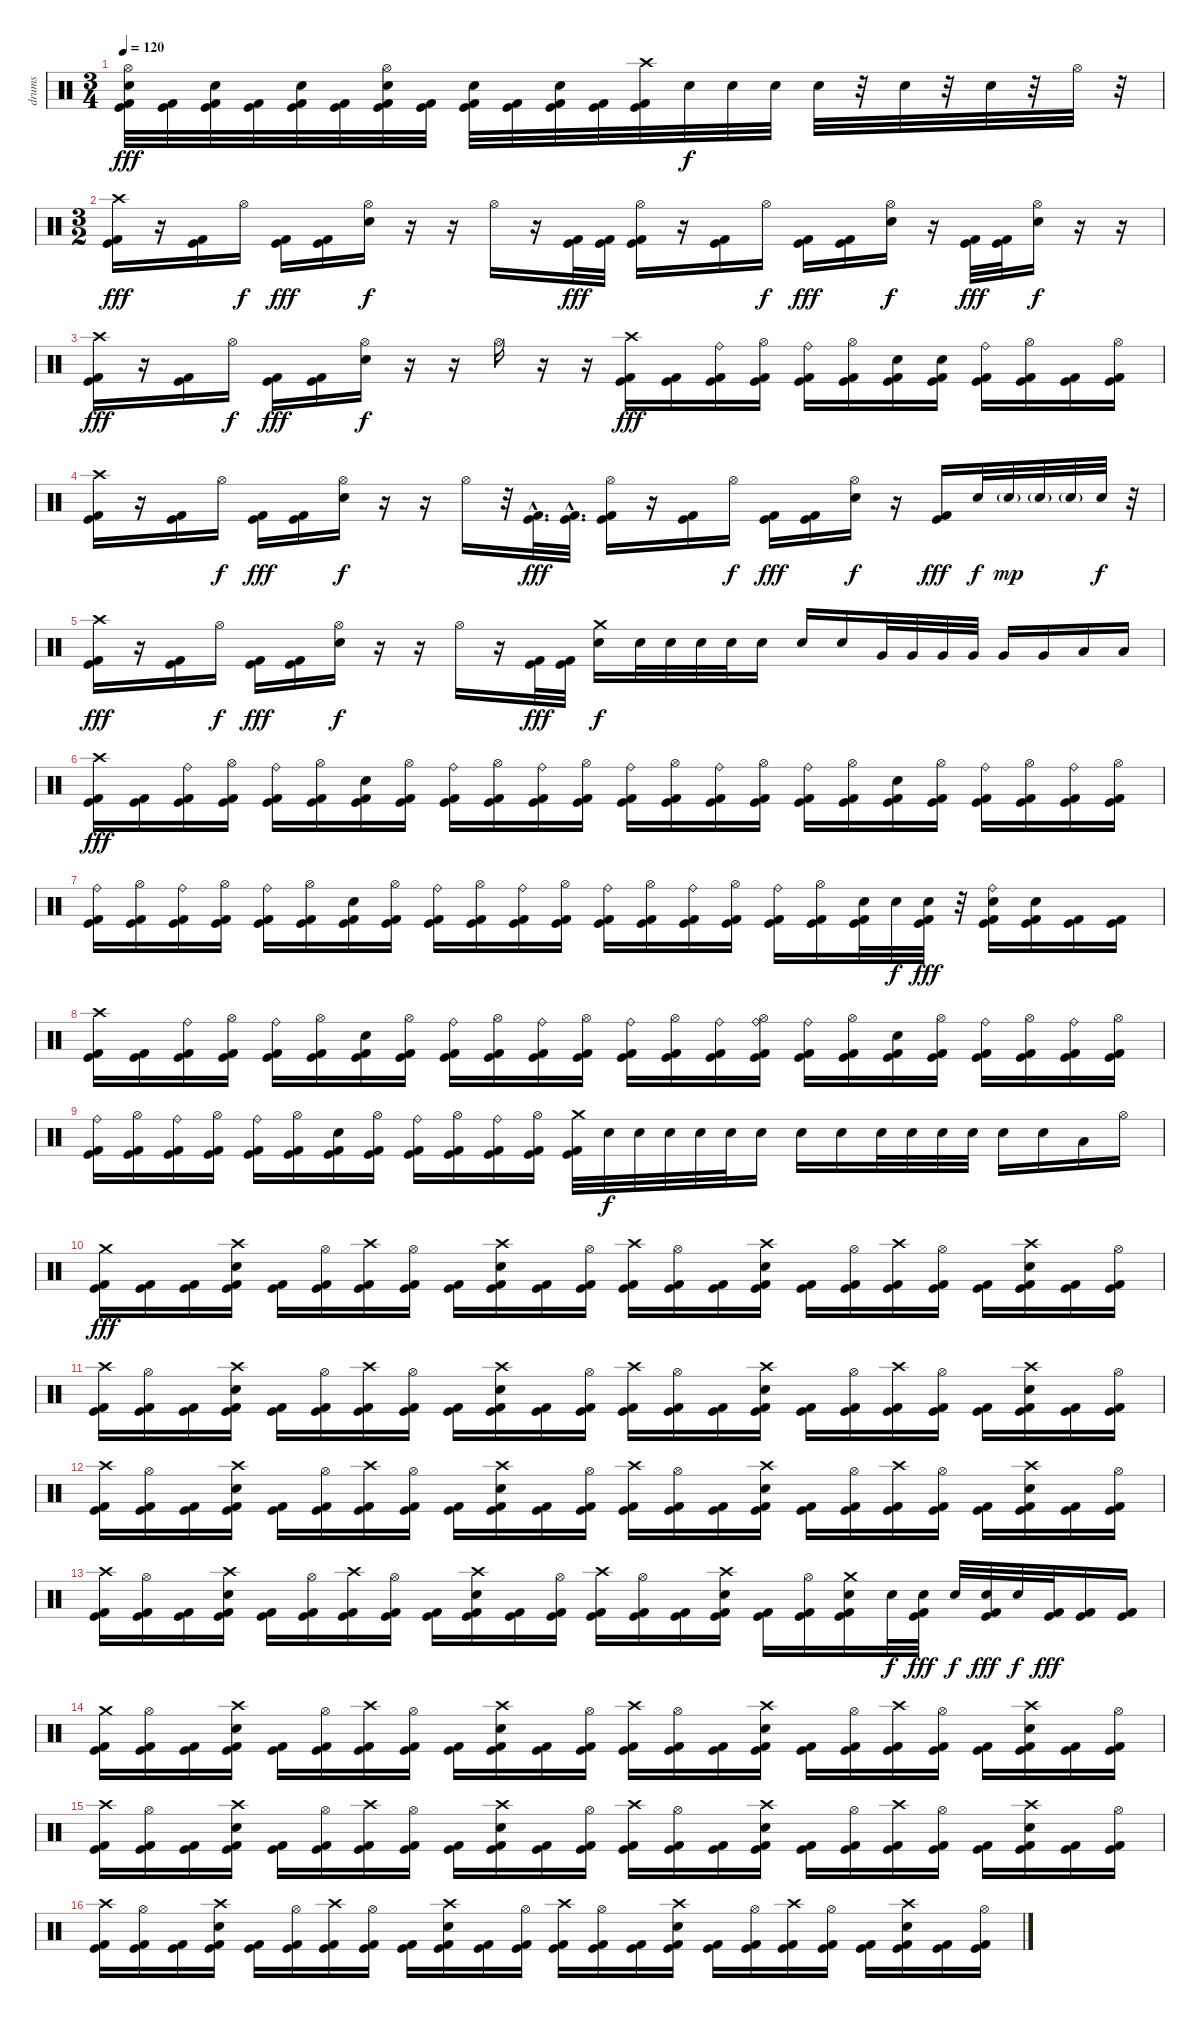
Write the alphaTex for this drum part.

\track ("drums" "drums") {instrument percussion}
\staff {score}
\articulation defaults
\ts (3 4)
\tempo 120
\clef neutral
\ks c
("Hi-Hat (open)" "Electric Snare (hit)" "Kick (hit)" "Kick (hit) 2").32{dy fff} ("Kick (hit)" "Kick (hit) 2").32 ("Electric Snare (hit)" "Kick (hit)" "Kick (hit) 2").32 ("Kick (hit)" "Kick (hit) 2").32 ("Electric Snare (hit)" "Kick (hit)" "Kick (hit) 2").32 ("Kick (hit)" "Kick (hit) 2").32 ("Hi-Hat (open)" "Electric Snare (hit)" "Kick (hit)" "Kick (hit) 2").32 ("Kick (hit)" "Kick (hit) 2").32 ("Electric Snare (hit)" "Kick (hit)" "Kick (hit) 2").32 ("Kick (hit)" "Kick (hit) 2").32 ("Electric Snare (hit)" "Kick (hit)" "Kick (hit) 2").32 ("Kick (hit)" "Kick (hit) 2").32 ("Crash high (hit)" "Kick (hit)" "Kick (hit) 2").32 "Electric Snare (hit)".32{dy f} "Electric Snare (hit)".32 "Electric Snare (hit)".32 "Electric Snare (hit)".32 r.32 "Electric Snare (hit)".32 r.32 "Electric Snare (hit)".32 r.32 "Hi-Hat (open)".32 r.32 |
\ts (3 2)
("Crash high (hit)" "Kick (hit)" "Kick (hit) 2").16{dy fff} r.16 ("Kick (hit)" "Kick (hit) 2").16 "Hi-Hat (open)".16{dy f} ("Kick (hit)" "Kick (hit) 2").16{dy fff} ("Kick (hit)" "Kick (hit) 2").16 ("Hi-Hat (open)" "Electric Snare (hit)").16{dy f} r.16 r.16 "Hi-Hat (open)".16 r.16 ("Kick (hit)" "Kick (hit) 2").32{dy fff} ("Kick (hit)" "Kick (hit) 2").32 ("Hi-Hat (open)" "Kick (hit)" "Kick (hit) 2").16 r.16 ("Kick (hit)" "Kick (hit) 2").16 "Hi-Hat (open)".16{dy f} ("Kick (hit)" "Kick (hit) 2").16{dy fff} ("Kick (hit)" "Kick (hit) 2").16 ("Hi-Hat (open)" "Electric Snare (hit)").16{dy f} r.16 ("Kick (hit)" "Kick (hit) 2").32{dy fff} ("Kick (hit)" "Kick (hit) 2").32 ("Hi-Hat (open)" "Electric Snare (hit)").16{dy f} r.16 r.16 |
("Crash high (hit)" "Kick (hit)" "Kick (hit) 2").16{dy fff} r.16 ("Kick (hit)" "Kick (hit) 2").16 "Hi-Hat (open)".16{dy f} ("Kick (hit)" "Kick (hit) 2").16{dy fff} ("Kick (hit)" "Kick (hit) 2").16 ("Hi-Hat (open)" "Electric Snare (hit)").16{dy f} r.16 r.16 "Hi-Hat (open)".16 r.16 r.16 ("Crash high (hit)" "Kick (hit)" "Kick (hit) 2").16{dy fff} ("Kick (hit)" "Kick (hit) 2").16 ("Ride (bell)" "Kick (hit)" "Kick (hit) 2").16 ("Hi-Hat (open)" "Kick (hit)" "Kick (hit) 2").16 ("Ride (bell)" "Kick (hit)" "Kick (hit) 2").16 ("Hi-Hat (open)" "Kick (hit)" "Kick (hit) 2").16 ("Electric Snare (hit)" "Kick (hit)" "Kick (hit) 2").16 ("Electric Snare (hit)" "Kick (hit)" "Kick (hit) 2").16 ("Ride (bell)" "Kick (hit)" "Kick (hit) 2").16 ("Hi-Hat (open)" "Kick (hit)" "Kick (hit) 2").16 ("Kick (hit)" "Kick (hit) 2").16 ("Hi-Hat (open)" "Kick (hit)" "Kick (hit) 2").16 |
("Crash high (hit)" "Kick (hit)" "Kick (hit) 2").16 r.16 ("Kick (hit)" "Kick (hit) 2").16 "Hi-Hat (open)".16{dy f} ("Kick (hit)" "Kick (hit) 2").16{dy fff} ("Kick (hit)" "Kick (hit) 2").16 ("Hi-Hat (open)" "Electric Snare (hit)").16{dy f} r.16 r.16 "Hi-Hat (open)".16 r.32 ("Kick (hit)"{hac} "Kick (hit) 2"{hac}).32{d dy fff} ("Kick (hit)"{hac} "Kick (hit) 2"{hac}).32{d} ("Hi-Hat (open)" "Kick (hit)" "Kick (hit) 2").16 r.16 ("Kick (hit)" "Kick (hit) 2").16 "Hi-Hat (open)".16{dy f} ("Kick (hit)" "Kick (hit) 2").16{dy fff} ("Kick (hit)" "Kick (hit) 2").16 ("Hi-Hat (open)" "Electric Snare (hit)").16{dy f} r.16 ("Kick (hit)" "Kick (hit) 2").16{dy fff} "Electric Snare (hit)".32{dy f} "Electric Snare (hit)"{g}.32{dy mp} "Electric Snare (hit)"{g}.32 "Electric Snare (hit)"{g}.32 "Electric Snare (hit)".32{dy f} r.32 |
("Crash high (hit)" "Kick (hit)" "Kick (hit) 2").16{dy fff} r.16 ("Kick (hit)" "Kick (hit) 2").16 "Hi-Hat (open)".16{dy f} ("Kick (hit)" "Kick (hit) 2").16{dy fff} ("Kick (hit)" "Kick (hit) 2").16 ("Hi-Hat (open)" "Electric Snare (hit)").16{dy f} r.16 r.16 "Hi-Hat (open)".16 r.16 ("Kick (hit)" "Kick (hit) 2").32{dy fff} ("Kick (hit)" "Kick (hit) 2").32 ("Crash medium (hit)" "Electric Snare (hit)").16{dy f} "Electric Snare (hit)".32 "Electric Snare (hit)".32 "Electric Snare (hit)".32 "Electric Snare (hit)".32 "Electric Snare (hit)".16 "Electric Snare (hit)".16 "Electric Snare (hit)".16 "Very Low Tom (hit)".32 "Very Low Tom (hit)".32 "Very Low Tom (hit)".32 "Very Low Tom (hit)".32 "Very Low Tom (hit)".16 "Very Low Tom (hit)".16 "Low Floor Tom (hit)".16 "Low Floor Tom (hit)".16 |
("Crash high (hit)" "Kick (hit)" "Kick (hit) 2").16{dy fff} ("Kick (hit)" "Kick (hit) 2").16 ("Ride (bell)" "Kick (hit)" "Kick (hit) 2").16 ("Hi-Hat (open)" "Kick (hit)" "Kick (hit) 2").16 ("Ride (bell)" "Kick (hit)" "Kick (hit) 2").16 ("Hi-Hat (open)" "Kick (hit)" "Kick (hit) 2").16 ("Electric Snare (hit)" "Kick (hit)" "Kick (hit) 2").16 ("Hi-Hat (open)" "Kick (hit)" "Kick (hit) 2").16 ("Ride (bell)" "Kick (hit)" "Kick (hit) 2").16 ("Hi-Hat (open)" "Kick (hit)" "Kick (hit) 2").16 ("Ride (bell)" "Kick (hit)" "Kick (hit) 2").16 ("Hi-Hat (open)" "Kick (hit)" "Kick (hit) 2").16 ("Ride (bell)" "Kick (hit)" "Kick (hit) 2").16 ("Hi-Hat (open)" "Kick (hit)" "Kick (hit) 2").16 ("Ride (bell)" "Kick (hit)" "Kick (hit) 2").16 ("Hi-Hat (open)" "Kick (hit)" "Kick (hit) 2").16 ("Ride (bell)" "Kick (hit)" "Kick (hit) 2").16 ("Hi-Hat (open)" "Kick (hit)" "Kick (hit) 2").16 ("Electric Snare (hit)" "Kick (hit)" "Kick (hit) 2").16 ("Hi-Hat (open)" "Kick (hit)" "Kick (hit) 2").16 ("Ride (bell)" "Kick (hit)" "Kick (hit) 2").16 ("Hi-Hat (open)" "Kick (hit)" "Kick (hit) 2").16 ("Ride (bell)" "Kick (hit)" "Kick (hit) 2").16 ("Hi-Hat (open)" "Kick (hit)" "Kick (hit) 2").16 |
("Ride (bell)" "Kick (hit)" "Kick (hit) 2").16 ("Hi-Hat (open)" "Kick (hit)" "Kick (hit) 2").16 ("Ride (bell)" "Kick (hit)" "Kick (hit) 2").16 ("Hi-Hat (open)" "Kick (hit)" "Kick (hit) 2").16 ("Ride (bell)" "Kick (hit)" "Kick (hit) 2").16 ("Hi-Hat (open)" "Kick (hit)" "Kick (hit) 2").16 ("Electric Snare (hit)" "Kick (hit)" "Kick (hit) 2").16 ("Hi-Hat (open)" "Kick (hit)" "Kick (hit) 2").16 ("Ride (bell)" "Kick (hit)" "Kick (hit) 2").16 ("Hi-Hat (open)" "Kick (hit)" "Kick (hit) 2").16 ("Ride (bell)" "Kick (hit)" "Kick (hit) 2").16 ("Hi-Hat (open)" "Kick (hit)" "Kick (hit) 2").16 ("Ride (bell)" "Kick (hit)" "Kick (hit) 2").16 ("Hi-Hat (open)" "Kick (hit)" "Kick (hit) 2").16 ("Ride (bell)" "Kick (hit)" "Kick (hit) 2").16 ("Hi-Hat (open)" "Kick (hit)" "Kick (hit) 2").16 ("Ride (bell)" "Kick (hit)" "Kick (hit) 2").16 ("Hi-Hat (open)" "Kick (hit)" "Kick (hit) 2").16 ("Electric Snare (hit)" "Kick (hit)" "Kick (hit) 2").32 "Electric Snare (hit)".32{dy f} ("Electric Snare (hit)" "Kick (hit)" "Kick (hit) 2").32{dy fff} r.32 ("Ride (bell)" "Electric Snare (hit)" "Kick (hit)" "Kick (hit) 2").16 ("Electric Snare (hit)" "Kick (hit)" "Kick (hit) 2").16 ("Kick (hit)" "Kick (hit) 2").16 ("Kick (hit)" "Kick (hit) 2").16 |
("Crash high (hit)" "Kick (hit)" "Kick (hit) 2").16 ("Kick (hit)" "Kick (hit) 2").16 ("Ride (bell)" "Kick (hit)" "Kick (hit) 2").16 ("Hi-Hat (open)" "Kick (hit)" "Kick (hit) 2").16 ("Ride (bell)" "Kick (hit)" "Kick (hit) 2").16 ("Hi-Hat (open)" "Kick (hit)" "Kick (hit) 2").16 ("Electric Snare (hit)" "Kick (hit)" "Kick (hit) 2").16 ("Hi-Hat (open)" "Kick (hit)" "Kick (hit) 2").16 ("Ride (bell)" "Kick (hit)" "Kick (hit) 2").16 ("Hi-Hat (open)" "Kick (hit)" "Kick (hit) 2").16 ("Ride (bell)" "Kick (hit)" "Kick (hit) 2").16 ("Hi-Hat (open)" "Kick (hit)" "Kick (hit) 2").16 ("Ride (bell)" "Kick (hit)" "Kick (hit) 2").16 ("Hi-Hat (open)" "Kick (hit)" "Kick (hit) 2").16 ("Ride (bell)" "Kick (hit)" "Kick (hit) 2").16 ("Ride (bell)" "Hi-Hat (open)" "Kick (hit)" "Kick (hit) 2").16 ("Ride (bell)" "Kick (hit)" "Kick (hit) 2").16 ("Hi-Hat (open)" "Kick (hit)" "Kick (hit) 2").16 ("Electric Snare (hit)" "Kick (hit)" "Kick (hit) 2").16 ("Hi-Hat (open)" "Kick (hit)" "Kick (hit) 2").16 ("Ride (bell)" "Kick (hit)" "Kick (hit) 2").16 ("Hi-Hat (open)" "Kick (hit)" "Kick (hit) 2").16 ("Ride (bell)" "Kick (hit)" "Kick (hit) 2").16 ("Hi-Hat (open)" "Kick (hit)" "Kick (hit) 2").16 |
("Ride (bell)" "Kick (hit)" "Kick (hit) 2").16 ("Hi-Hat (open)" "Kick (hit)" "Kick (hit) 2").16 ("Ride (bell)" "Kick (hit)" "Kick (hit) 2").16 ("Hi-Hat (open)" "Kick (hit)" "Kick (hit) 2").16 ("Ride (bell)" "Kick (hit)" "Kick (hit) 2").16 ("Hi-Hat (open)" "Kick (hit)" "Kick (hit) 2").16 ("Electric Snare (hit)" "Kick (hit)" "Kick (hit) 2").16 ("Hi-Hat (open)" "Kick (hit)" "Kick (hit) 2").16 ("Ride (bell)" "Kick (hit)" "Kick (hit) 2").16 ("Hi-Hat (open)" "Kick (hit)" "Kick (hit) 2").16 ("Ride (bell)" "Kick (hit)" "Kick (hit) 2").16 ("Hi-Hat (open)" "Kick (hit)" "Kick (hit) 2").16 ("Crash medium (hit)" "Kick (hit)" "Kick (hit) 2").32 "Electric Snare (hit)".32{dy f} "Electric Snare (hit)".32 "Electric Snare (hit)".32 "Electric Snare (hit)".32 "Electric Snare (hit)".32 "Electric Snare (hit)".16 "Electric Snare (hit)".16 "Electric Snare (hit)".16 "Electric Snare (hit)".32 "Electric Snare (hit)".32 "Electric Snare (hit)".32 "Electric Snare (hit)".32 "Electric Snare (hit)".16 "Electric Snare (hit)".16 "Low Tom (hit)".16 "Hi-Hat (open)".16 |
("Crash medium (hit)" "Kick (hit)" "Kick (hit) 2").16{dy fff} ("Kick (hit)" "Kick (hit) 2").16 ("Kick (hit)" "Kick (hit) 2").16 ("Crash high (hit)" "Electric Snare (hit)" "Kick (hit)" "Kick (hit) 2").16 ("Kick (hit)" "Kick (hit) 2").16 ("Hi-Hat (open)" "Kick (hit)" "Kick (hit) 2").16 ("Crash high (hit)" "Kick (hit)" "Kick (hit) 2").16 ("Hi-Hat (open)" "Kick (hit)" "Kick (hit) 2").16 ("Kick (hit)" "Kick (hit) 2").16 ("Crash high (hit)" "Electric Snare (hit)" "Kick (hit)" "Kick (hit) 2").16 ("Kick (hit)" "Kick (hit) 2").16 ("Hi-Hat (open)" "Kick (hit)" "Kick (hit) 2").16 ("Crash high (hit)" "Kick (hit)" "Kick (hit) 2").16 ("Hi-Hat (open)" "Kick (hit)" "Kick (hit) 2").16 ("Kick (hit)" "Kick (hit) 2").16 ("Crash high (hit)" "Electric Snare (hit)" "Kick (hit)" "Kick (hit) 2").16 ("Kick (hit)" "Kick (hit) 2").16 ("Hi-Hat (open)" "Kick (hit)" "Kick (hit) 2").16 ("Crash high (hit)" "Kick (hit)" "Kick (hit) 2").16 ("Hi-Hat (open)" "Kick (hit)" "Kick (hit) 2").16 ("Kick (hit)" "Kick (hit) 2").16 ("Crash high (hit)" "Electric Snare (hit)" "Kick (hit)" "Kick (hit) 2").16 ("Kick (hit)" "Kick (hit) 2").16 ("Hi-Hat (open)" "Kick (hit)" "Kick (hit) 2").16 |
("Crash high (hit)" "Kick (hit)" "Kick (hit) 2").16 ("Hi-Hat (open)" "Kick (hit)" "Kick (hit) 2").16 ("Kick (hit)" "Kick (hit) 2").16 ("Crash high (hit)" "Electric Snare (hit)" "Kick (hit)" "Kick (hit) 2").16 ("Kick (hit)" "Kick (hit) 2").16 ("Hi-Hat (open)" "Kick (hit)" "Kick (hit) 2").16 ("Crash high (hit)" "Kick (hit)" "Kick (hit) 2").16 ("Hi-Hat (open)" "Kick (hit)" "Kick (hit) 2").16 ("Kick (hit)" "Kick (hit) 2").16 ("Crash high (hit)" "Electric Snare (hit)" "Kick (hit)" "Kick (hit) 2").16 ("Kick (hit)" "Kick (hit) 2").16 ("Hi-Hat (open)" "Kick (hit)" "Kick (hit) 2").16 ("Crash high (hit)" "Kick (hit)" "Kick (hit) 2").16 ("Hi-Hat (open)" "Kick (hit)" "Kick (hit) 2").16 ("Kick (hit)" "Kick (hit) 2").16 ("Crash high (hit)" "Electric Snare (hit)" "Kick (hit)" "Kick (hit) 2").16 ("Kick (hit)" "Kick (hit) 2").16 ("Hi-Hat (open)" "Kick (hit)" "Kick (hit) 2").16 ("Crash high (hit)" "Kick (hit)" "Kick (hit) 2").16 ("Hi-Hat (open)" "Kick (hit)" "Kick (hit) 2").16 ("Kick (hit)" "Kick (hit) 2").16 ("Crash high (hit)" "Electric Snare (hit)" "Kick (hit)" "Kick (hit) 2").16 ("Kick (hit)" "Kick (hit) 2").16 ("Hi-Hat (open)" "Kick (hit)" "Kick (hit) 2").16 |
("Crash high (hit)" "Kick (hit)" "Kick (hit) 2").16 ("Hi-Hat (open)" "Kick (hit)" "Kick (hit) 2").16 ("Kick (hit)" "Kick (hit) 2").16 ("Crash high (hit)" "Electric Snare (hit)" "Kick (hit)" "Kick (hit) 2").16 ("Kick (hit)" "Kick (hit) 2").16 ("Hi-Hat (open)" "Kick (hit)" "Kick (hit) 2").16 ("Crash high (hit)" "Kick (hit)" "Kick (hit) 2").16 ("Hi-Hat (open)" "Kick (hit)" "Kick (hit) 2").16 ("Kick (hit)" "Kick (hit) 2").16 ("Crash high (hit)" "Electric Snare (hit)" "Kick (hit)" "Kick (hit) 2").16 ("Kick (hit)" "Kick (hit) 2").16 ("Hi-Hat (open)" "Kick (hit)" "Kick (hit) 2").16 ("Crash high (hit)" "Kick (hit)" "Kick (hit) 2").16 ("Hi-Hat (open)" "Kick (hit)" "Kick (hit) 2").16 ("Kick (hit)" "Kick (hit) 2").16 ("Crash high (hit)" "Electric Snare (hit)" "Kick (hit)" "Kick (hit) 2").16 ("Kick (hit)" "Kick (hit) 2").16 ("Hi-Hat (open)" "Kick (hit)" "Kick (hit) 2").16 ("Crash high (hit)" "Kick (hit)" "Kick (hit) 2").16 ("Hi-Hat (open)" "Kick (hit)" "Kick (hit) 2").16 ("Kick (hit)" "Kick (hit) 2").16 ("Crash high (hit)" "Electric Snare (hit)" "Kick (hit)" "Kick (hit) 2").16 ("Kick (hit)" "Kick (hit) 2").16 ("Hi-Hat (open)" "Kick (hit)" "Kick (hit) 2").16 |
("Crash high (hit)" "Kick (hit)" "Kick (hit) 2").16 ("Hi-Hat (open)" "Kick (hit)" "Kick (hit) 2").16 ("Kick (hit)" "Kick (hit) 2").16 ("Crash high (hit)" "Electric Snare (hit)" "Kick (hit)" "Kick (hit) 2").16 ("Kick (hit)" "Kick (hit) 2").16 ("Hi-Hat (open)" "Kick (hit)" "Kick (hit) 2").16 ("Crash high (hit)" "Kick (hit)" "Kick (hit) 2").16 ("Hi-Hat (open)" "Kick (hit)" "Kick (hit) 2").16 ("Kick (hit)" "Kick (hit) 2").16 ("Crash high (hit)" "Electric Snare (hit)" "Kick (hit)" "Kick (hit) 2").16 ("Kick (hit)" "Kick (hit) 2").16 ("Hi-Hat (open)" "Kick (hit)" "Kick (hit) 2").16 ("Crash high (hit)" "Kick (hit)" "Kick (hit) 2").16 ("Hi-Hat (open)" "Kick (hit)" "Kick (hit) 2").16 ("Kick (hit)" "Kick (hit) 2").16 ("Crash high (hit)" "Electric Snare (hit)" "Kick (hit)" "Kick (hit) 2").16 ("Kick (hit)" "Kick (hit) 2").16 ("Hi-Hat (open)" "Kick (hit)" "Kick (hit) 2").16 ("Crash medium (hit)" "Electric Snare (hit)" "Kick (hit)" "Kick (hit) 2").16 "Electric Snare (hit)".32{dy f} ("Electric Snare (hit)" "Kick (hit)" "Kick (hit) 2").32{dy fff} "Electric Snare (hit)".32{dy f} ("Electric Snare (hit)" "Kick (hit)" "Kick (hit) 2").32{dy fff} "Electric Snare (hit)".32{dy f} ("Kick (hit)" "Kick (hit) 2").32{dy fff} ("Kick (hit)" "Kick (hit) 2").16 ("Kick (hit)" "Kick (hit) 2").16 |
("Crash medium (hit)" "Kick (hit)" "Kick (hit) 2").16 ("Hi-Hat (open)" "Kick (hit)" "Kick (hit) 2").16 ("Kick (hit)" "Kick (hit) 2").16 ("Crash high (hit)" "Electric Snare (hit)" "Kick (hit)" "Kick (hit) 2").16 ("Kick (hit)" "Kick (hit) 2").16 ("Hi-Hat (open)" "Kick (hit)" "Kick (hit) 2").16 ("Crash high (hit)" "Kick (hit)" "Kick (hit) 2").16 ("Hi-Hat (open)" "Kick (hit)" "Kick (hit) 2").16 ("Kick (hit)" "Kick (hit) 2").16 ("Crash high (hit)" "Electric Snare (hit)" "Kick (hit)" "Kick (hit) 2").16 ("Kick (hit)" "Kick (hit) 2").16 ("Hi-Hat (open)" "Kick (hit)" "Kick (hit) 2").16 ("Crash high (hit)" "Kick (hit)" "Kick (hit) 2").16 ("Hi-Hat (open)" "Kick (hit)" "Kick (hit) 2").16 ("Kick (hit)" "Kick (hit) 2").16 ("Crash high (hit)" "Electric Snare (hit)" "Kick (hit)" "Kick (hit) 2").16 ("Kick (hit)" "Kick (hit) 2").16 ("Hi-Hat (open)" "Kick (hit)" "Kick (hit) 2").16 ("Crash high (hit)" "Kick (hit)" "Kick (hit) 2").16 ("Hi-Hat (open)" "Kick (hit)" "Kick (hit) 2").16 ("Kick (hit)" "Kick (hit) 2").16 ("Crash high (hit)" "Electric Snare (hit)" "Kick (hit)" "Kick (hit) 2").16 ("Kick (hit)" "Kick (hit) 2").16 ("Hi-Hat (open)" "Kick (hit)" "Kick (hit) 2").16 |
("Crash high (hit)" "Kick (hit)" "Kick (hit) 2").16 ("Hi-Hat (open)" "Kick (hit)" "Kick (hit) 2").16 ("Kick (hit)" "Kick (hit) 2").16 ("Crash high (hit)" "Electric Snare (hit)" "Kick (hit)" "Kick (hit) 2").16 ("Kick (hit)" "Kick (hit) 2").16 ("Hi-Hat (open)" "Kick (hit)" "Kick (hit) 2").16 ("Crash high (hit)" "Kick (hit)" "Kick (hit) 2").16 ("Hi-Hat (open)" "Kick (hit)" "Kick (hit) 2").16 ("Kick (hit)" "Kick (hit) 2").16 ("Crash high (hit)" "Electric Snare (hit)" "Kick (hit)" "Kick (hit) 2").16 ("Kick (hit)" "Kick (hit) 2").16 ("Hi-Hat (open)" "Kick (hit)" "Kick (hit) 2").16 ("Crash high (hit)" "Kick (hit)" "Kick (hit) 2").16 ("Hi-Hat (open)" "Kick (hit)" "Kick (hit) 2").16 ("Kick (hit)" "Kick (hit) 2").16 ("Crash high (hit)" "Electric Snare (hit)" "Kick (hit)" "Kick (hit) 2").16 ("Kick (hit)" "Kick (hit) 2").16 ("Hi-Hat (open)" "Kick (hit)" "Kick (hit) 2").16 ("Crash high (hit)" "Kick (hit)" "Kick (hit) 2").16 ("Hi-Hat (open)" "Kick (hit)" "Kick (hit) 2").16 ("Kick (hit)" "Kick (hit) 2").16 ("Crash high (hit)" "Electric Snare (hit)" "Kick (hit)" "Kick (hit) 2").16 ("Kick (hit)" "Kick (hit) 2").16 ("Hi-Hat (open)" "Kick (hit)" "Kick (hit) 2").16 |
("Crash high (hit)" "Kick (hit)" "Kick (hit) 2").16 ("Hi-Hat (open)" "Kick (hit)" "Kick (hit) 2").16 ("Kick (hit)" "Kick (hit) 2").16 ("Crash high (hit)" "Electric Snare (hit)" "Kick (hit)" "Kick (hit) 2").16 ("Kick (hit)" "Kick (hit) 2").16 ("Hi-Hat (open)" "Kick (hit)" "Kick (hit) 2").16 ("Crash high (hit)" "Kick (hit)" "Kick (hit) 2").16 ("Hi-Hat (open)" "Kick (hit)" "Kick (hit) 2").16 ("Kick (hit)" "Kick (hit) 2").16 ("Crash high (hit)" "Electric Snare (hit)" "Kick (hit)" "Kick (hit) 2").16 ("Kick (hit)" "Kick (hit) 2").16 ("Hi-Hat (open)" "Kick (hit)" "Kick (hit) 2").16 ("Crash high (hit)" "Kick (hit)" "Kick (hit) 2").16 ("Hi-Hat (open)" "Kick (hit)" "Kick (hit) 2").16 ("Kick (hit)" "Kick (hit) 2").16 ("Crash high (hit)" "Electric Snare (hit)" "Kick (hit)" "Kick (hit) 2").16 ("Kick (hit)" "Kick (hit) 2").16 ("Hi-Hat (open)" "Kick (hit)" "Kick (hit) 2").16 ("Crash high (hit)" "Kick (hit)" "Kick (hit) 2").16 ("Hi-Hat (open)" "Kick (hit)" "Kick (hit) 2").16 ("Kick (hit)" "Kick (hit) 2").16 ("Crash high (hit)" "Electric Snare (hit)" "Kick (hit)" "Kick (hit) 2").16 ("Kick (hit)" "Kick (hit) 2").16 ("Hi-Hat (open)" "Kick (hit)" "Kick (hit) 2").16
